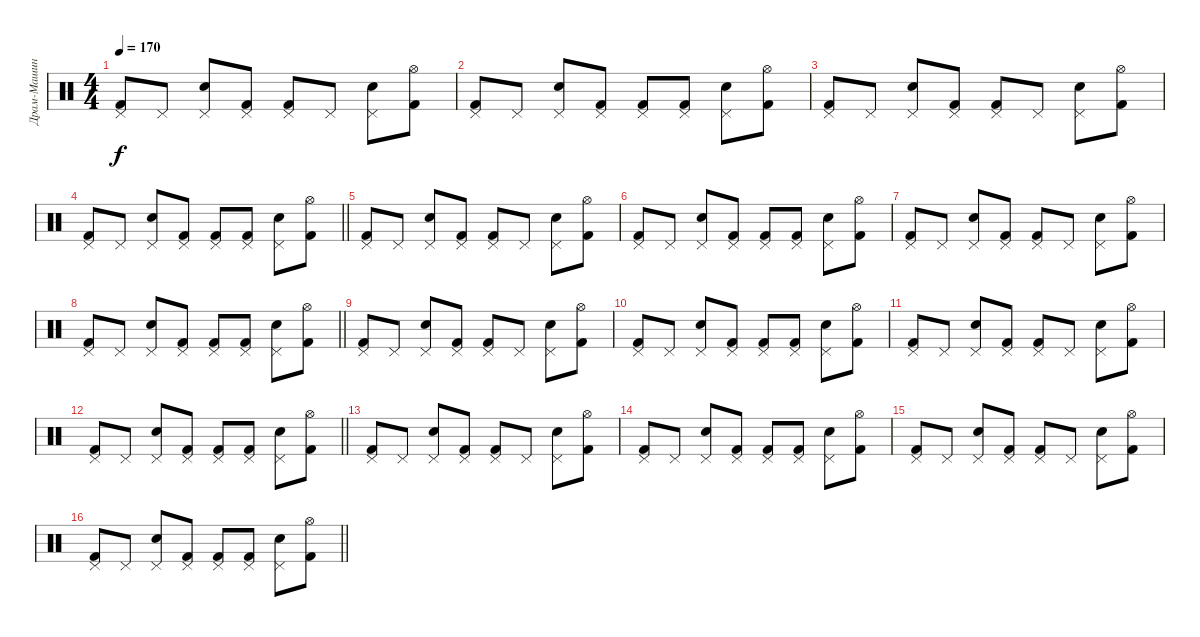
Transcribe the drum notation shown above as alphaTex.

\track ("Драм-Машина" "Драм-Машин") {instrument percussion}
\staff {score}
\articulation defaults
\ts (4 4)
\tempo 170
\clef neutral
\ks c
("Pedal Hi-Hat (hit)" "Kick (hit) 2").8{dy f} "Pedal Hi-Hat (hit)".8 ("Pedal Hi-Hat (hit)" "Electric Snare (hit)").8 ("Pedal Hi-Hat (hit)" "Kick (hit) 2").8 ("Pedal Hi-Hat (hit)" "Kick (hit) 2").8 "Pedal Hi-Hat (hit)".8 ("Pedal Hi-Hat (hit)" "Electric Snare (hit)").8 ("Hi-Hat (open)" "Kick (hit) 2").8 |
("Pedal Hi-Hat (hit)" "Kick (hit) 2").8 "Pedal Hi-Hat (hit)".8 ("Pedal Hi-Hat (hit)" "Electric Snare (hit)").8 ("Pedal Hi-Hat (hit)" "Kick (hit) 2").8 ("Pedal Hi-Hat (hit)" "Kick (hit) 2").8 ("Pedal Hi-Hat (hit)" "Kick (hit) 2").8 ("Pedal Hi-Hat (hit)" "Electric Snare (hit)").8 ("Hi-Hat (open)" "Kick (hit) 2").8 |
("Pedal Hi-Hat (hit)" "Kick (hit) 2").8 "Pedal Hi-Hat (hit)".8 ("Pedal Hi-Hat (hit)" "Electric Snare (hit)").8 ("Pedal Hi-Hat (hit)" "Kick (hit) 2").8 ("Pedal Hi-Hat (hit)" "Kick (hit) 2").8 "Pedal Hi-Hat (hit)".8 ("Pedal Hi-Hat (hit)" "Electric Snare (hit)").8 ("Hi-Hat (open)" "Kick (hit) 2").8 |
\barLineRight lightlight
("Pedal Hi-Hat (hit)" "Kick (hit) 2").8 "Pedal Hi-Hat (hit)".8 ("Pedal Hi-Hat (hit)" "Electric Snare (hit)").8 ("Pedal Hi-Hat (hit)" "Kick (hit) 2").8 ("Pedal Hi-Hat (hit)" "Kick (hit) 2").8 ("Pedal Hi-Hat (hit)" "Kick (hit) 2").8 ("Pedal Hi-Hat (hit)" "Electric Snare (hit)").8 ("Hi-Hat (open)" "Kick (hit) 2").8 |
("Pedal Hi-Hat (hit)" "Kick (hit) 2").8 "Pedal Hi-Hat (hit)".8 ("Pedal Hi-Hat (hit)" "Electric Snare (hit)").8 ("Pedal Hi-Hat (hit)" "Kick (hit) 2").8 ("Pedal Hi-Hat (hit)" "Kick (hit) 2").8 "Pedal Hi-Hat (hit)".8 ("Pedal Hi-Hat (hit)" "Electric Snare (hit)").8 ("Hi-Hat (open)" "Kick (hit) 2").8 |
("Pedal Hi-Hat (hit)" "Kick (hit) 2").8 "Pedal Hi-Hat (hit)".8 ("Pedal Hi-Hat (hit)" "Electric Snare (hit)").8 ("Pedal Hi-Hat (hit)" "Kick (hit) 2").8 ("Pedal Hi-Hat (hit)" "Kick (hit) 2").8 ("Pedal Hi-Hat (hit)" "Kick (hit) 2").8 ("Pedal Hi-Hat (hit)" "Electric Snare (hit)").8 ("Hi-Hat (open)" "Kick (hit) 2").8 |
("Pedal Hi-Hat (hit)" "Kick (hit) 2").8 "Pedal Hi-Hat (hit)".8 ("Pedal Hi-Hat (hit)" "Electric Snare (hit)").8 ("Pedal Hi-Hat (hit)" "Kick (hit) 2").8 ("Pedal Hi-Hat (hit)" "Kick (hit) 2").8 "Pedal Hi-Hat (hit)".8 ("Pedal Hi-Hat (hit)" "Electric Snare (hit)").8 ("Hi-Hat (open)" "Kick (hit) 2").8 |
\barLineRight lightlight
("Pedal Hi-Hat (hit)" "Kick (hit) 2").8 "Pedal Hi-Hat (hit)".8 ("Pedal Hi-Hat (hit)" "Electric Snare (hit)").8 ("Pedal Hi-Hat (hit)" "Kick (hit) 2").8 ("Pedal Hi-Hat (hit)" "Kick (hit) 2").8 ("Pedal Hi-Hat (hit)" "Kick (hit) 2").8 ("Pedal Hi-Hat (hit)" "Electric Snare (hit)").8 ("Hi-Hat (open)" "Kick (hit) 2").8 |
("Pedal Hi-Hat (hit)" "Kick (hit) 2").8 "Pedal Hi-Hat (hit)".8 ("Pedal Hi-Hat (hit)" "Electric Snare (hit)").8 ("Pedal Hi-Hat (hit)" "Kick (hit) 2").8 ("Pedal Hi-Hat (hit)" "Kick (hit) 2").8 "Pedal Hi-Hat (hit)".8 ("Pedal Hi-Hat (hit)" "Electric Snare (hit)").8 ("Hi-Hat (open)" "Kick (hit) 2").8 |
("Pedal Hi-Hat (hit)" "Kick (hit) 2").8 "Pedal Hi-Hat (hit)".8 ("Pedal Hi-Hat (hit)" "Electric Snare (hit)").8 ("Pedal Hi-Hat (hit)" "Kick (hit) 2").8 ("Pedal Hi-Hat (hit)" "Kick (hit) 2").8 ("Pedal Hi-Hat (hit)" "Kick (hit) 2").8 ("Pedal Hi-Hat (hit)" "Electric Snare (hit)").8 ("Hi-Hat (open)" "Kick (hit) 2").8 |
("Pedal Hi-Hat (hit)" "Kick (hit) 2").8 "Pedal Hi-Hat (hit)".8 ("Pedal Hi-Hat (hit)" "Electric Snare (hit)").8 ("Pedal Hi-Hat (hit)" "Kick (hit) 2").8 ("Pedal Hi-Hat (hit)" "Kick (hit) 2").8 "Pedal Hi-Hat (hit)".8 ("Pedal Hi-Hat (hit)" "Electric Snare (hit)").8 ("Hi-Hat (open)" "Kick (hit) 2").8 |
\barLineRight lightlight
("Pedal Hi-Hat (hit)" "Kick (hit) 2").8 "Pedal Hi-Hat (hit)".8 ("Pedal Hi-Hat (hit)" "Electric Snare (hit)").8 ("Pedal Hi-Hat (hit)" "Kick (hit) 2").8 ("Pedal Hi-Hat (hit)" "Kick (hit) 2").8 ("Pedal Hi-Hat (hit)" "Kick (hit) 2").8 ("Pedal Hi-Hat (hit)" "Electric Snare (hit)").8 ("Hi-Hat (open)" "Kick (hit) 2").8 |
("Pedal Hi-Hat (hit)" "Kick (hit) 2").8 "Pedal Hi-Hat (hit)".8 ("Pedal Hi-Hat (hit)" "Electric Snare (hit)").8 ("Pedal Hi-Hat (hit)" "Kick (hit) 2").8 ("Pedal Hi-Hat (hit)" "Kick (hit) 2").8 "Pedal Hi-Hat (hit)".8 ("Pedal Hi-Hat (hit)" "Electric Snare (hit)").8 ("Hi-Hat (open)" "Kick (hit) 2").8 |
("Pedal Hi-Hat (hit)" "Kick (hit) 2").8 "Pedal Hi-Hat (hit)".8 ("Pedal Hi-Hat (hit)" "Electric Snare (hit)").8 ("Pedal Hi-Hat (hit)" "Kick (hit) 2").8 ("Pedal Hi-Hat (hit)" "Kick (hit) 2").8 ("Pedal Hi-Hat (hit)" "Kick (hit) 2").8 ("Pedal Hi-Hat (hit)" "Electric Snare (hit)").8 ("Hi-Hat (open)" "Kick (hit) 2").8 |
("Pedal Hi-Hat (hit)" "Kick (hit) 2").8 "Pedal Hi-Hat (hit)".8 ("Pedal Hi-Hat (hit)" "Electric Snare (hit)").8 ("Pedal Hi-Hat (hit)" "Kick (hit) 2").8 ("Pedal Hi-Hat (hit)" "Kick (hit) 2").8 "Pedal Hi-Hat (hit)".8 ("Pedal Hi-Hat (hit)" "Electric Snare (hit)").8 ("Hi-Hat (open)" "Kick (hit) 2").8 |
\barLineRight lightlight
("Pedal Hi-Hat (hit)" "Kick (hit) 2").8 "Pedal Hi-Hat (hit)".8 ("Pedal Hi-Hat (hit)" "Electric Snare (hit)").8 ("Pedal Hi-Hat (hit)" "Kick (hit) 2").8 ("Pedal Hi-Hat (hit)" "Kick (hit) 2").8 ("Pedal Hi-Hat (hit)" "Kick (hit) 2").8 ("Pedal Hi-Hat (hit)" "Electric Snare (hit)").8 ("Hi-Hat (open)" "Kick (hit) 2").8
